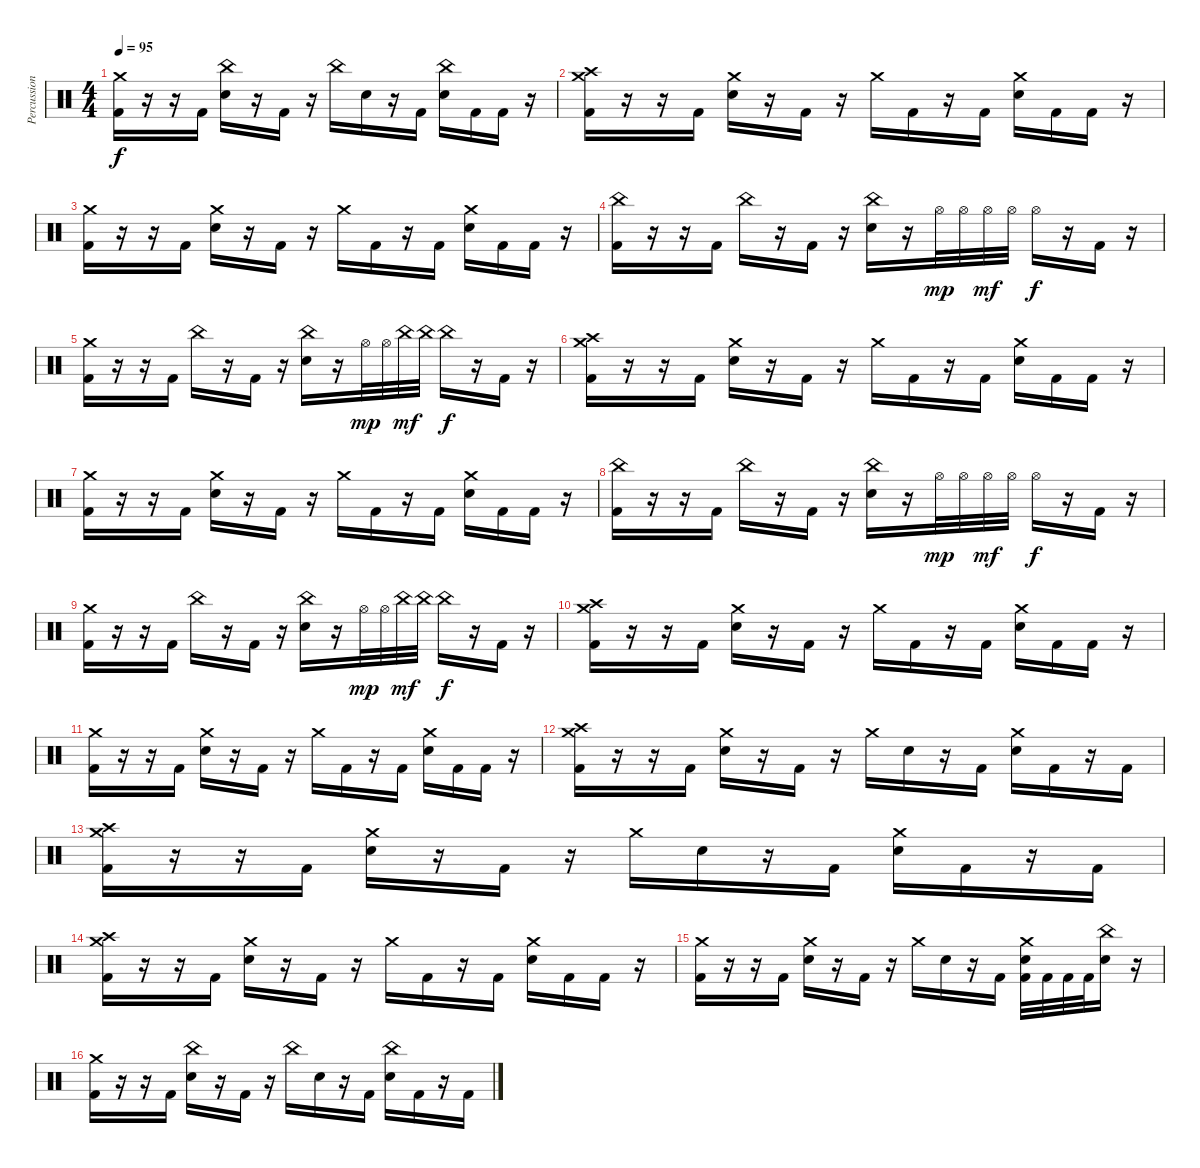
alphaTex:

\track ("Percussion" "Percussion") {instrument percussion}
\staff {score}
\articulation defaults
\ts (4 4)
\tempo 95
\clef neutral
\ks c
("Crash medium (hit)" "Kick (hit) 2").16{dy f} r.16 r.16 "Kick (hit) 2".16 ("China (hit)" "Electric Snare (hit)").16 r.16 "Kick (hit) 2".16 r.16 "China (hit)".16 "Electric Snare (hit)".16 r.16 "Kick (hit) 2".16 ("China (hit)" "Electric Snare (hit)").16 "Kick (hit) 2".16 "Kick (hit) 2".16 r.16 |
("Crash medium (hit)" "Crash high (hit)" "Kick (hit) 2").16 r.16 r.16 "Kick (hit) 2".16 ("Crash medium (hit)" "Electric Snare (hit)").16 r.16 "Kick (hit) 2".16 r.16 "Crash medium (hit)".16 "Kick (hit) 2".16 r.16 "Kick (hit) 2".16 ("Crash medium (hit)" "Electric Snare (hit)").16 "Kick (hit) 2".16 "Kick (hit) 2".16 r.16 |
("Crash medium (hit)" "Kick (hit) 2").16 r.16 r.16 "Kick (hit) 2".16 ("Crash medium (hit)" "Electric Snare (hit)").16 r.16 "Kick (hit) 2".16 r.16 "Crash medium (hit)".16 "Kick (hit) 2".16 r.16 "Kick (hit) 2".16 ("Crash medium (hit)" "Electric Snare (hit)").16 "Kick (hit) 2".16 "Kick (hit) 2".16 r.16 |
("China (hit)" "Kick (hit) 2").16 r.16 r.16 "Kick (hit) 2".16 "China (hit)".16 r.16 "Kick (hit) 2".16 r.16 ("China (hit)" "Electric Snare (hit)").16 r.16 "Hi-Hat (open)".32{dy mp} "Hi-Hat (open)".32 "Hi-Hat (open)".32{dy mf} "Hi-Hat (open)".32 "Hi-Hat (open)".16{dy f} r.16 "Kick (hit) 2".16 r.16 |
("Crash medium (hit)" "Kick (hit) 2").16 r.16 r.16 "Kick (hit) 2".16 "China (hit)".16 r.16 "Kick (hit) 2".16 r.16 ("China (hit)" "Electric Snare (hit)").16 r.16 "Hi-Hat (open)".32{dy mp} "Hi-Hat (open)".32 "China (hit)".32{dy mf} "China (hit)".32 "China (hit)".16{dy f} r.16 "Kick (hit) 2".16 r.16 |
("Crash medium (hit)" "Crash high (hit)" "Kick (hit) 2").16 r.16 r.16 "Kick (hit) 2".16 ("Crash medium (hit)" "Electric Snare (hit)").16 r.16 "Kick (hit) 2".16 r.16 "Crash medium (hit)".16 "Kick (hit) 2".16 r.16 "Kick (hit) 2".16 ("Crash medium (hit)" "Electric Snare (hit)").16 "Kick (hit) 2".16 "Kick (hit) 2".16 r.16 |
("Crash medium (hit)" "Kick (hit) 2").16 r.16 r.16 "Kick (hit) 2".16 ("Crash medium (hit)" "Electric Snare (hit)").16 r.16 "Kick (hit) 2".16 r.16 "Crash medium (hit)".16 "Kick (hit) 2".16 r.16 "Kick (hit) 2".16 ("Crash medium (hit)" "Electric Snare (hit)").16 "Kick (hit) 2".16 "Kick (hit) 2".16 r.16 |
("China (hit)" "Kick (hit) 2").16 r.16 r.16 "Kick (hit) 2".16 "China (hit)".16 r.16 "Kick (hit) 2".16 r.16 ("China (hit)" "Electric Snare (hit)").16 r.16 "Hi-Hat (open)".32{dy mp} "Hi-Hat (open)".32 "Hi-Hat (open)".32{dy mf} "Hi-Hat (open)".32 "Hi-Hat (open)".16{dy f} r.16 "Kick (hit) 2".16 r.16 |
("Crash medium (hit)" "Kick (hit) 2").16 r.16 r.16 "Kick (hit) 2".16 "China (hit)".16 r.16 "Kick (hit) 2".16 r.16 ("China (hit)" "Electric Snare (hit)").16 r.16 "Hi-Hat (open)".32{dy mp} "Hi-Hat (open)".32 "China (hit)".32{dy mf} "China (hit)".32 "China (hit)".16{dy f} r.16 "Kick (hit) 2".16 r.16 |
("Crash medium (hit)" "Crash high (hit)" "Kick (hit) 2").16 r.16 r.16 "Kick (hit) 2".16 ("Crash medium (hit)" "Electric Snare (hit)").16 r.16 "Kick (hit) 2".16 r.16 "Crash medium (hit)".16 "Kick (hit) 2".16 r.16 "Kick (hit) 2".16 ("Crash medium (hit)" "Electric Snare (hit)").16 "Kick (hit) 2".16 "Kick (hit) 2".16 r.16 |
("Crash medium (hit)" "Kick (hit) 2").16 r.16 r.16 "Kick (hit) 2".16 ("Crash medium (hit)" "Electric Snare (hit)").16 r.16 "Kick (hit) 2".16 r.16 "Crash medium (hit)".16 "Kick (hit) 2".16 r.16 "Kick (hit) 2".16 ("Crash medium (hit)" "Electric Snare (hit)").16 "Kick (hit) 2".16 "Kick (hit) 2".16 r.16 |
("Crash medium (hit)" "Crash high (hit)" "Kick (hit) 2").16 r.16 r.16 "Kick (hit) 2".16 ("Crash medium (hit)" "Electric Snare (hit)").16 r.16 "Kick (hit) 2".16 r.16 "Crash medium (hit)".16 "Electric Snare (hit)".16 r.16 "Kick (hit) 2".16 ("Crash medium (hit)" "Electric Snare (hit)").16 "Kick (hit) 2".16 r.16 "Kick (hit) 2".16 |
("Crash medium (hit)" "Crash high (hit)" "Kick (hit) 2").16 r.16 r.16 "Kick (hit) 2".16 ("Crash medium (hit)" "Electric Snare (hit)").16 r.16 "Kick (hit) 2".16 r.16 "Crash medium (hit)".16 "Electric Snare (hit)".16 r.16 "Kick (hit) 2".16 ("Crash medium (hit)" "Electric Snare (hit)").16 "Kick (hit) 2".16 r.16 "Kick (hit) 2".16 |
("Crash medium (hit)" "Crash high (hit)" "Kick (hit) 2").16 r.16 r.16 "Kick (hit) 2".16 ("Crash medium (hit)" "Electric Snare (hit)").16 r.16 "Kick (hit) 2".16 r.16 "Crash medium (hit)".16 "Kick (hit) 2".16 r.16 "Kick (hit) 2".16 ("Crash medium (hit)" "Electric Snare (hit)").16 "Kick (hit) 2".16 "Kick (hit) 2".16 r.16 |
("Crash medium (hit)" "Kick (hit) 2").16 r.16 r.16 "Kick (hit) 2".16 ("Crash medium (hit)" "Electric Snare (hit)").16 r.16 "Kick (hit) 2".16 r.16 "Crash medium (hit)".16 "Electric Snare (hit)".16 r.16 "Kick (hit) 2".16 ("Crash medium (hit)" "Electric Snare (hit)" "Kick (hit) 2").32 "Kick (hit) 2".32 "Kick (hit) 2".32 "Kick (hit) 2".32 ("China (hit)" "Electric Snare (hit)").16 r.16 |
("Crash medium (hit)" "Kick (hit) 2").16 r.16 r.16 "Kick (hit) 2".16 ("China (hit)" "Electric Snare (hit)").16 r.16 "Kick (hit) 2".16 r.16 "China (hit)".16 "Electric Snare (hit)".16 r.16 "Kick (hit) 2".16 ("China (hit)" "Electric Snare (hit)").16 "Kick (hit) 2".16 r.16 "Kick (hit) 2".16
